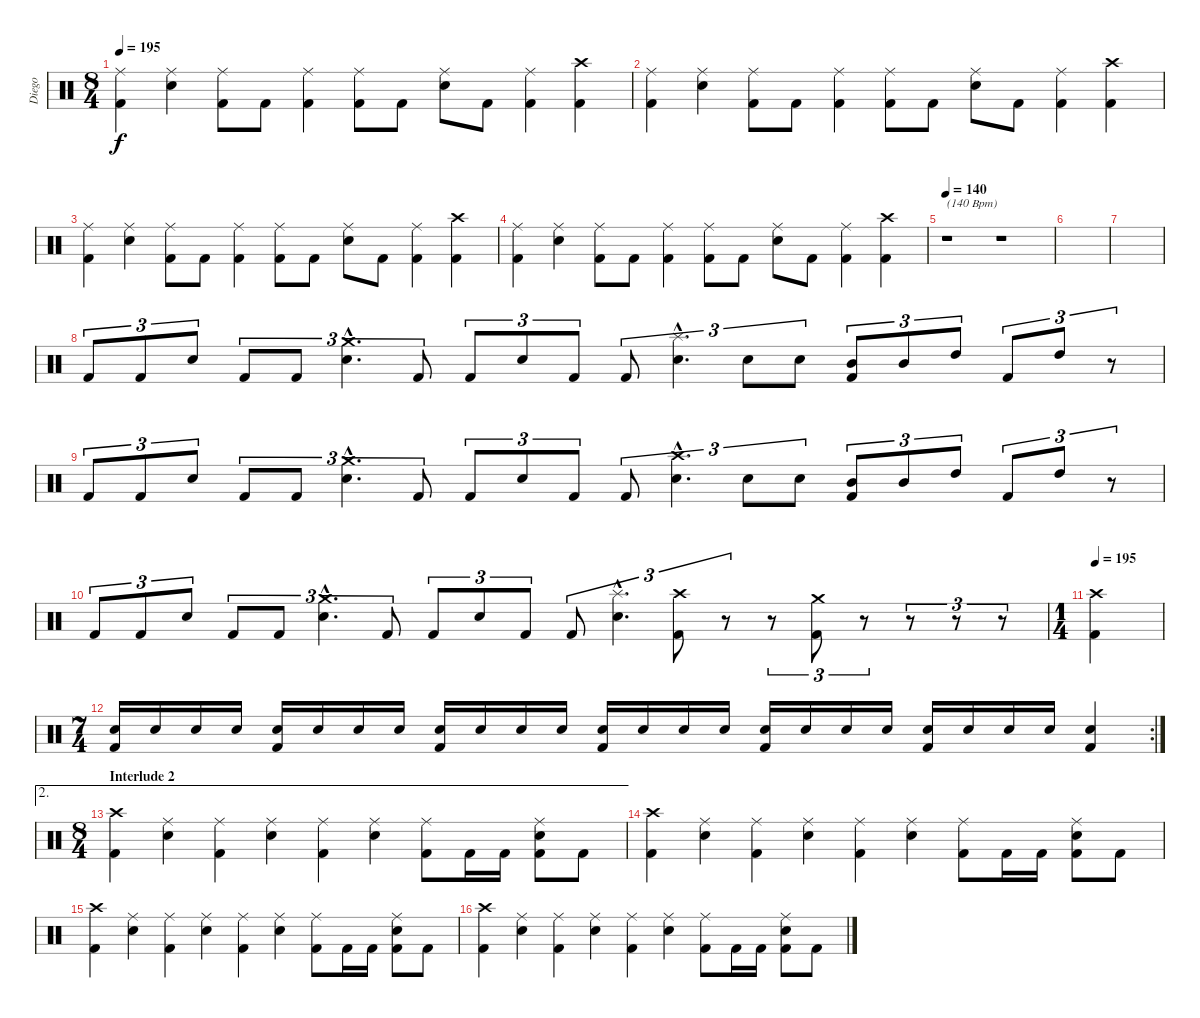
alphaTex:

\track ("Diego" "Diego") {instrument percussion}
\staff {score}
\articulation defaults
\ts (8 4)
\tempo 195
\clef neutral
\ks c
("Ride (middle)" "Kick (hit) 2").4{dy f} ("Ride (middle)" "Electric Snare (hit)").4 ("Ride (middle)" "Kick (hit) 2").8 "Kick (hit) 2".8 ("Ride (middle)" "Kick (hit) 2").4 ("Ride (middle)" "Kick (hit) 2").8 "Kick (hit) 2".8 ("Ride (middle)" "Electric Snare (hit)").8 "Kick (hit) 2".8 ("Ride (middle)" "Kick (hit) 2").4 ("Crash high (hit)" "Kick (hit) 2").4 |
("Ride (middle)" "Kick (hit) 2").4 ("Ride (middle)" "Electric Snare (hit)").4 ("Ride (middle)" "Kick (hit) 2").8 "Kick (hit) 2".8 ("Ride (middle)" "Kick (hit) 2").4 ("Ride (middle)" "Kick (hit) 2").8 "Kick (hit) 2".8 ("Ride (middle)" "Electric Snare (hit)").8 "Kick (hit) 2".8 ("Ride (middle)" "Kick (hit) 2").4 ("Crash high (hit)" "Kick (hit) 2").4 |
("Ride (middle)" "Kick (hit) 2").4 ("Ride (middle)" "Electric Snare (hit)").4 ("Ride (middle)" "Kick (hit) 2").8 "Kick (hit) 2".8 ("Ride (middle)" "Kick (hit) 2").4 ("Ride (middle)" "Kick (hit) 2").8 "Kick (hit) 2".8 ("Ride (middle)" "Electric Snare (hit)").8 "Kick (hit) 2".8 ("Ride (middle)" "Kick (hit) 2").4 ("Crash high (hit)" "Kick (hit) 2").4 |
("Ride (middle)" "Kick (hit) 2").4 ("Ride (middle)" "Electric Snare (hit)").4 ("Ride (middle)" "Kick (hit) 2").8 "Kick (hit) 2".8 ("Ride (middle)" "Kick (hit) 2").4 ("Ride (middle)" "Kick (hit) 2").8 "Kick (hit) 2".8 ("Ride (middle)" "Electric Snare (hit)").8 "Kick (hit) 2".8 ("Ride (middle)" "Kick (hit) 2").4 ("Crash high (hit)" "Kick (hit) 2").4 |
\tempo 140
r.1{txt "(140 Bpm)"} r.1 |
|
|
"Kick (hit) 2".8{tu (3 2)} "Kick (hit) 2".8{tu (3 2)} "Electric Snare (hit)".8{tu (3 2)} "Kick (hit) 2".8{tu (3 2)} "Kick (hit) 2".8{tu (3 2)} ("Crash medium (hit)"{hac} "Electric Snare (hit)"{hac}).4{d tu (3 2)} "Kick (hit) 2".8{tu (3 2)} "Kick (hit) 2".8{tu (3 2)} "Electric Snare (hit)".8{tu (3 2)} "Kick (hit) 2".8{tu (3 2)} "Kick (hit) 2".8{tu (3 2)} ("Splash (hit)"{hac} "Electric Snare (hit)"{hac}).4{d tu (3 2)} "Electric Snare (hit)".8{tu (3 2)} "Electric Snare (hit)".8{tu (3 2)} ("Mid Tom (hit)" "Kick (hit) 2").8{tu (3 2)} "Mid Tom (hit)".8{tu (3 2)} "High Tom (hit)".8{tu (3 2)} "Kick (hit) 2".8{tu (3 2)} "High Tom (hit)".8{tu (3 2)} r.8{tu (3 2)} |
"Kick (hit) 2".8{tu (3 2)} "Kick (hit) 2".8{tu (3 2)} "Electric Snare (hit)".8{tu (3 2)} "Kick (hit) 2".8{tu (3 2)} "Kick (hit) 2".8{tu (3 2)} ("Crash medium (hit)"{hac} "Electric Snare (hit)"{hac}).4{d tu (3 2)} "Kick (hit) 2".8{tu (3 2)} "Kick (hit) 2".8{tu (3 2)} "Electric Snare (hit)".8{tu (3 2)} "Kick (hit) 2".8{tu (3 2)} "Kick (hit) 2".8{tu (3 2)} ("Crash high (hit)"{hac} "Electric Snare (hit)"{hac}).4{d tu (3 2)} "Electric Snare (hit)".8{tu (3 2)} "Electric Snare (hit)".8{tu (3 2)} ("Mid Tom (hit)" "Kick (hit) 2").8{tu (3 2)} "Mid Tom (hit)".8{tu (3 2)} "High Tom (hit)".8{tu (3 2)} "Kick (hit) 2".8{tu (3 2)} "High Tom (hit)".8{tu (3 2)} r.8{tu (3 2)} |
"Kick (hit) 2".8{tu (3 2)} "Kick (hit) 2".8{tu (3 2)} "Electric Snare (hit)".8{tu (3 2)} "Kick (hit) 2".8{tu (3 2)} "Kick (hit) 2".8{tu (3 2)} ("Crash medium (hit)"{hac} "Electric Snare (hit)"{hac}).4{d tu (3 2)} "Kick (hit) 2".8{tu (3 2)} "Kick (hit) 2".8{tu (3 2)} "Electric Snare (hit)".8{tu (3 2)} "Kick (hit) 2".8{tu (3 2)} "Kick (hit) 2".8{tu (3 2)} ("Splash (hit)"{hac} "Electric Snare (hit)"{hac}).4{d tu (3 2)} ("Crash high (hit)" "Kick (hit) 2").8{tu (3 2)} r.8{tu (3 2)} r.8{tu (3 2)} ("Crash medium (hit)" "Kick (hit) 2").8{tu (3 2)} r.8{tu (3 2)} r.8{tu (3 2)} r.8{tu (3 2)} r.8{tu (3 2)} |
\ts (1 4)
\tempo 195
("Crash high (hit)" "Kick (hit) 2").4 |
\rc 2
\ts (7 4)
("Electric Snare (hit)" "Kick (hit) 2").16 "Electric Snare (hit)".16 "Electric Snare (hit)".16 "Electric Snare (hit)".16 ("Electric Snare (hit)" "Kick (hit) 2").16 "Electric Snare (hit)".16 "Electric Snare (hit)".16 "Electric Snare (hit)".16 ("Electric Snare (hit)" "Kick (hit) 2").16 "Electric Snare (hit)".16 "Electric Snare (hit)".16 "Electric Snare (hit)".16 ("Electric Snare (hit)" "Kick (hit) 2").16 "Electric Snare (hit)".16 "Electric Snare (hit)".16 "Electric Snare (hit)".16 ("Electric Snare (hit)" "Kick (hit) 2").16 "Electric Snare (hit)".16 "Electric Snare (hit)".16 "Electric Snare (hit)".16 ("Electric Snare (hit)" "Kick (hit) 2").16 "Electric Snare (hit)".16 "Electric Snare (hit)".16 "Electric Snare (hit)".16 ("Electric Snare (hit)" "Kick (hit) 2").4 |
\ae 2
\ts (8 4)
\section ("" "Interlude 2")
("Crash high (hit)" "Kick (hit) 2").4 ("Ride (middle)" "Electric Snare (hit)").4 ("Ride (middle)" "Kick (hit) 2").4 ("Ride (middle)" "Electric Snare (hit)").4 ("Ride (middle)" "Kick (hit) 2").4 ("Ride (middle)" "Electric Snare (hit)").4 ("Ride (middle)" "Kick (hit) 2").8 "Kick (hit) 2".16 "Kick (hit) 2".16 ("Ride (middle)" "Electric Snare (hit)" "Kick (hit) 2").8 "Kick (hit) 2".8 |
("Crash high (hit)" "Kick (hit) 2").4 ("Ride (middle)" "Electric Snare (hit)").4 ("Ride (middle)" "Kick (hit) 2").4 ("Ride (middle)" "Electric Snare (hit)").4 ("Ride (middle)" "Kick (hit) 2").4 ("Ride (middle)" "Electric Snare (hit)").4 ("Ride (middle)" "Kick (hit) 2").8 "Kick (hit) 2".16 "Kick (hit) 2".16 ("Ride (middle)" "Electric Snare (hit)" "Kick (hit) 2").8 "Kick (hit) 2".8 |
("Crash high (hit)" "Kick (hit) 2").4 ("Ride (middle)" "Electric Snare (hit)").4 ("Ride (middle)" "Kick (hit) 2").4 ("Ride (middle)" "Electric Snare (hit)").4 ("Ride (middle)" "Kick (hit) 2").4 ("Ride (middle)" "Electric Snare (hit)").4 ("Ride (middle)" "Kick (hit) 2").8 "Kick (hit) 2".16 "Kick (hit) 2".16 ("Ride (middle)" "Electric Snare (hit)" "Kick (hit) 2").8 "Kick (hit) 2".8 |
("Crash high (hit)" "Kick (hit) 2").4 ("Ride (middle)" "Electric Snare (hit)").4 ("Ride (middle)" "Kick (hit) 2").4 ("Ride (middle)" "Electric Snare (hit)").4 ("Ride (middle)" "Kick (hit) 2").4 ("Ride (middle)" "Electric Snare (hit)").4 ("Ride (middle)" "Kick (hit) 2").8 "Kick (hit) 2".16 "Kick (hit) 2".16 ("Ride (middle)" "Electric Snare (hit)" "Kick (hit) 2").8 "Kick (hit) 2".8
